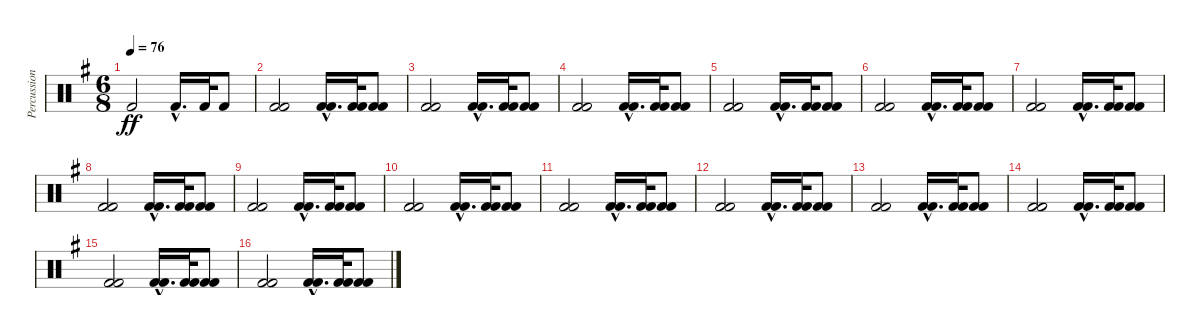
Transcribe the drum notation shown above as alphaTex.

\track ("Percussions 1" "Percussion") {instrument percussion}
\staff {score}
\articulation defaults
\ts (6 8)
\tempo 76
\clef neutral
\ks g "Kick (hit) 2".2{dy ff} "Kick (hit) 2"{hac}.16{d} "Kick (hit) 2".32 "Kick (hit) 2".8
|
("Kick (hit) 2" "Kick (hit) 2").2 ("Kick (hit) 2"{hac} "Kick (hit) 2"{hac}).16{d} ("Kick (hit) 2" "Kick (hit) 2").32 ("Kick (hit) 2" "Kick (hit) 2").8 |
("Kick (hit) 2" "Kick (hit) 2").2 ("Kick (hit) 2"{hac} "Kick (hit) 2"{hac}).16{d} ("Kick (hit) 2" "Kick (hit) 2").32 ("Kick (hit) 2" "Kick (hit) 2").8 |
("Kick (hit) 2" "Kick (hit) 2").2 ("Kick (hit) 2"{hac} "Kick (hit) 2"{hac}).16{d} ("Kick (hit) 2" "Kick (hit) 2").32 ("Kick (hit) 2" "Kick (hit) 2").8 |
("Kick (hit) 2" "Kick (hit) 2").2 ("Kick (hit) 2"{hac} "Kick (hit) 2"{hac}).16{d} ("Kick (hit) 2" "Kick (hit) 2").32 ("Kick (hit) 2" "Kick (hit) 2").8 |
("Kick (hit) 2" "Kick (hit) 2").2 ("Kick (hit) 2"{hac} "Kick (hit) 2"{hac}).16{d} ("Kick (hit) 2" "Kick (hit) 2").32 ("Kick (hit) 2" "Kick (hit) 2").8 |
("Kick (hit) 2" "Kick (hit) 2").2 ("Kick (hit) 2"{hac} "Kick (hit) 2"{hac}).16{d} ("Kick (hit) 2" "Kick (hit) 2").32 ("Kick (hit) 2" "Kick (hit) 2").8 |
("Kick (hit) 2" "Kick (hit) 2").2 ("Kick (hit) 2"{hac} "Kick (hit) 2"{hac}).16{d} ("Kick (hit) 2" "Kick (hit) 2").32 ("Kick (hit) 2" "Kick (hit) 2").8 |
("Kick (hit) 2" "Kick (hit) 2").2 ("Kick (hit) 2"{hac} "Kick (hit) 2"{hac}).16{d} ("Kick (hit) 2" "Kick (hit) 2").32 ("Kick (hit) 2" "Kick (hit) 2").8 |
("Kick (hit) 2" "Kick (hit) 2").2 ("Kick (hit) 2"{hac} "Kick (hit) 2"{hac}).16{d} ("Kick (hit) 2" "Kick (hit) 2").32 ("Kick (hit) 2" "Kick (hit) 2").8 |
("Kick (hit) 2" "Kick (hit) 2").2 ("Kick (hit) 2"{hac} "Kick (hit) 2"{hac}).16{d} ("Kick (hit) 2" "Kick (hit) 2").32 ("Kick (hit) 2" "Kick (hit) 2").8 |
("Kick (hit) 2" "Kick (hit) 2").2 ("Kick (hit) 2"{hac} "Kick (hit) 2"{hac}).16{d} ("Kick (hit) 2" "Kick (hit) 2").32 ("Kick (hit) 2" "Kick (hit) 2").8 |
("Kick (hit) 2" "Kick (hit) 2").2 ("Kick (hit) 2"{hac} "Kick (hit) 2"{hac}).16{d} ("Kick (hit) 2" "Kick (hit) 2").32 ("Kick (hit) 2" "Kick (hit) 2").8 |
("Kick (hit) 2" "Kick (hit) 2").2 ("Kick (hit) 2"{hac} "Kick (hit) 2"{hac}).16{d} ("Kick (hit) 2" "Kick (hit) 2").32 ("Kick (hit) 2" "Kick (hit) 2").8 |
("Kick (hit) 2" "Kick (hit) 2").2 ("Kick (hit) 2"{hac} "Kick (hit) 2"{hac}).16{d} ("Kick (hit) 2" "Kick (hit) 2").32 ("Kick (hit) 2" "Kick (hit) 2").8 |
("Kick (hit) 2" "Kick (hit) 2").2 ("Kick (hit) 2"{hac} "Kick (hit) 2"{hac}).16{d} ("Kick (hit) 2" "Kick (hit) 2").32 ("Kick (hit) 2" "Kick (hit) 2").8
